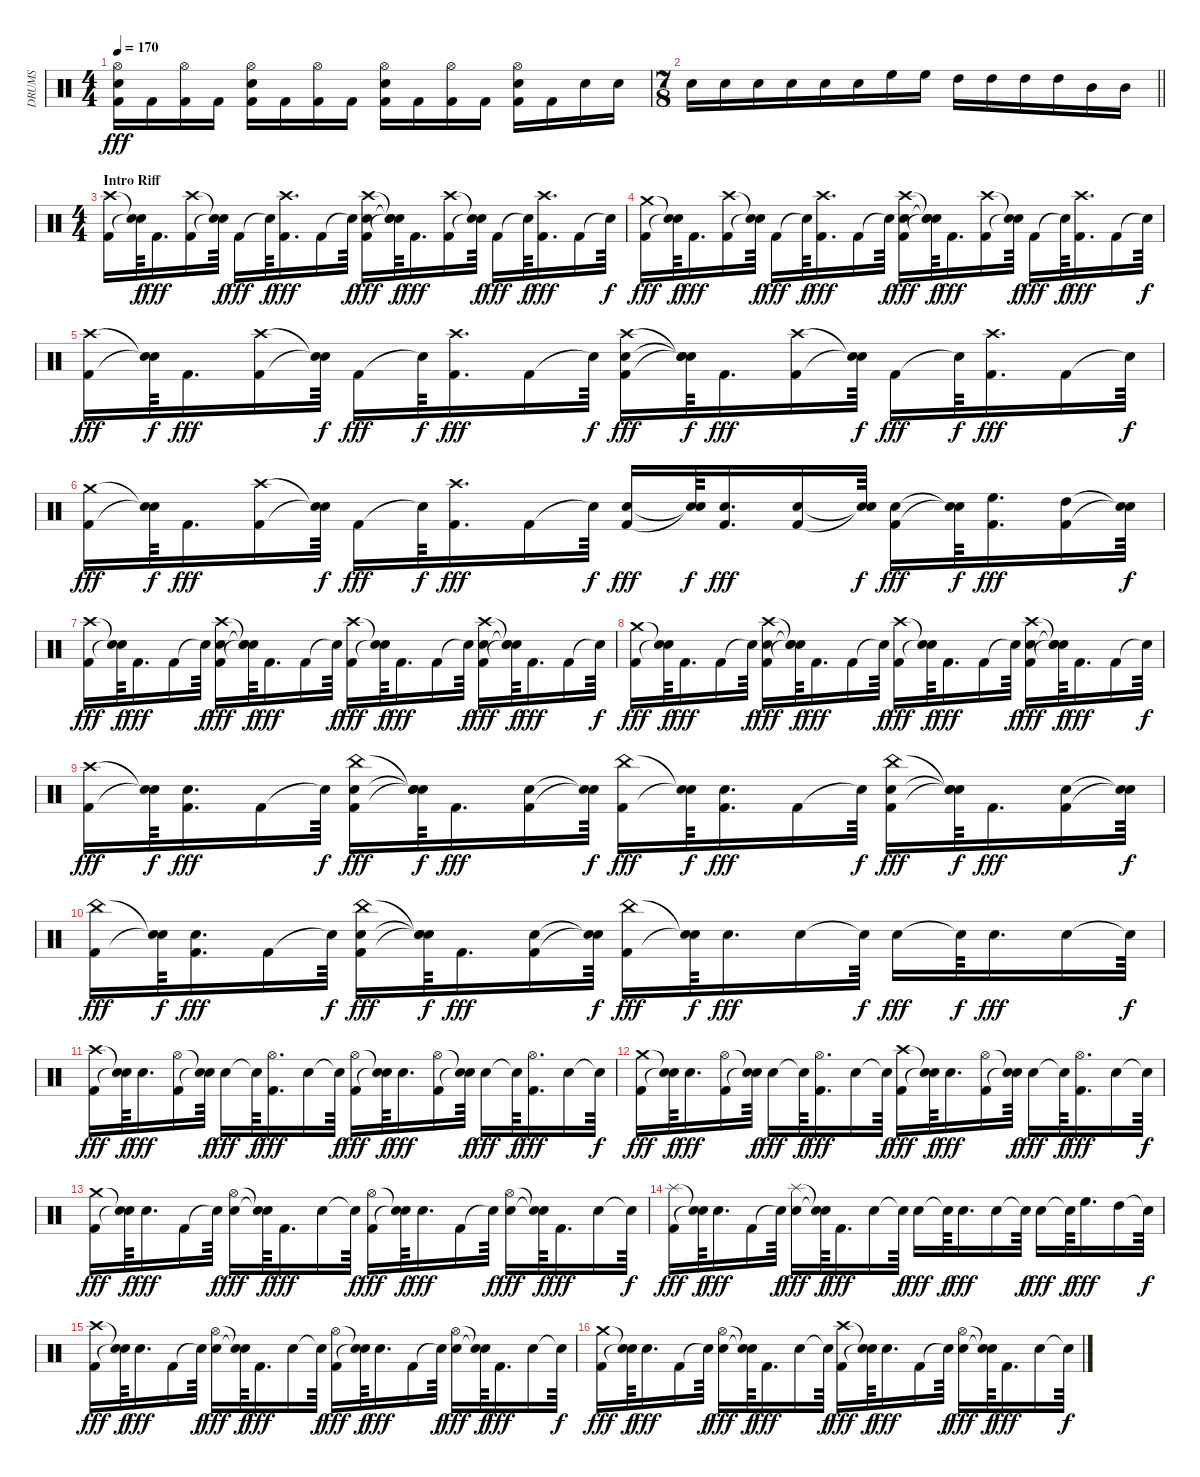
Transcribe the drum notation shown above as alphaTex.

\track ("DRUMS" "DRUMS") {instrument percussion}
\staff {score}
\articulation defaults
\ts (4 4)
\tempo 170
\clef neutral
\ks c
("Hi-Hat (open)" "Kick (hit) 2" "Snare (hit) 2").16{dy fff} "Kick (hit) 2".16 ("Kick (hit) 2" "Hi-Hat (open)").16 "Kick (hit) 2".16 ("Kick (hit) 2" "Snare (hit) 2" "Hi-Hat (open)").16 "Kick (hit) 2".16 ("Kick (hit) 2" "Hi-Hat (open)").16 "Kick (hit) 2".16 ("Hi-Hat (open)" "Kick (hit) 2" "Snare (hit) 2").16 "Kick (hit) 2".16 ("Kick (hit) 2" "Hi-Hat (open)").16 "Kick (hit) 2".16 ("Kick (hit) 2" "Snare (hit) 2" "Hi-Hat (open)").16 "Kick (hit) 2".16 "Snare (hit) 2".16 "Snare (hit) 2".16 |
\ts (7 8)
\barLineRight lightlight "Snare (hit) 2".16 "Snare (hit) 2".16 "Snare (hit) 2".16 "Snare (hit) 2".16 "Snare (hit) 2".16 "Snare (hit) 2".16 "High Floor Tom (hit)".16 "High Floor Tom (hit)".16 "High Tom (hit)".16 "High Tom (hit)".16 "High Tom (hit)".16 "High Tom (hit)".16 "Mid Tom (hit)".16 "Mid Tom (hit)".16
|
\ts (4 4)
\section ("" "Intro Riff")
("Crash high (hit)" "Kick (hit) 2").16 ("Snare (hit)"{t} "Snare (hit)"{t}).64{dy f} "Kick (hit) 2".16{d dy fff} ("Crash high (hit)" "Kick (hit) 2").16 ("Snare (hit)"{t} "Snare (hit)"{t}).64{dy f} "Kick (hit) 2".16{dy fff} "Snare (hit)"{t}.64{dy f} ("Crash high (hit)" "Kick (hit) 2").16{d dy fff} "Kick (hit) 2".16 "Snare (hit)"{t}.64{dy f} ("Crash high (hit)" "Snare (hit) 2" "Kick (hit) 2").16{dy fff} ("Snare (hit)"{t} "Snare (hit)"{t} "Snare (hit)"{t}).64{dy f} "Kick (hit) 2".16{d dy fff} ("Kick (hit) 2" "Crash high (hit)").16 ("Snare (hit)"{t} "Snare (hit)"{t}).64{dy f} "Kick (hit) 2".16{dy fff} "Snare (hit)"{t}.64{dy f} ("Kick (hit) 2" "Crash high (hit)").16{d dy fff} "Kick (hit) 2".16 "Snare (hit)"{t}.64{dy f} |
("Crash medium (hit)" "Kick (hit) 2").16{dy fff} ("Snare (hit)"{t} "Snare (hit)"{t}).64{dy f} "Kick (hit) 2".16{d dy fff} ("Crash high (hit)" "Kick (hit) 2").16 ("Snare (hit)"{t} "Snare (hit)"{t}).64{dy f} "Kick (hit) 2".16{dy fff} "Snare (hit)"{t}.64{dy f} ("Crash high (hit)" "Kick (hit) 2").16{d dy fff} "Kick (hit) 2".16 "Snare (hit)"{t}.64{dy f} ("Crash high (hit)" "Kick (hit) 2" "Snare (hit) 2").16{dy fff} ("Snare (hit)"{t} "Snare (hit)"{t} "Snare (hit)"{t}).64{dy f} "Kick (hit) 2".16{d dy fff} ("Kick (hit) 2" "Crash high (hit)").16 ("Snare (hit)"{t} "Snare (hit)"{t}).64{dy f} "Kick (hit) 2".16{dy fff} "Snare (hit)"{t}.64{dy f} ("Kick (hit) 2" "Crash high (hit)").16{d dy fff} "Kick (hit) 2".16 "Snare (hit)"{t}.64{dy f} |
("Crash high (hit)" "Kick (hit) 2").16{dy fff} ("Snare (hit)"{t} "Snare (hit)"{t}).64{dy f} "Kick (hit) 2".16{d dy fff} ("Kick (hit) 2" "Crash high (hit)").16 ("Snare (hit)"{t} "Snare (hit)"{t}).64{dy f} "Kick (hit) 2".16{dy fff} "Snare (hit)"{t}.64{dy f} ("Kick (hit) 2" "Crash high (hit)").16{d dy fff} "Kick (hit) 2".16 "Snare (hit)"{t}.64{dy f} ("Kick (hit) 2" "Snare (hit) 2" "Crash high (hit)").16{dy fff} ("Snare (hit)"{t} "Snare (hit)"{t} "Snare (hit)"{t}).64{dy f} "Kick (hit) 2".16{d dy fff} ("Crash high (hit)" "Kick (hit) 2").16 ("Snare (hit)"{t} "Snare (hit)"{t}).64{dy f} "Kick (hit) 2".16{dy fff} "Snare (hit)"{t}.64{dy f} ("Crash high (hit)" "Kick (hit) 2").16{d dy fff} "Kick (hit) 2".16 "Snare (hit)"{t}.64{dy f} |
("Kick (hit) 2" "Crash medium (hit)").16{dy fff} ("Snare (hit)"{t} "Snare (hit)"{t}).64{dy f} "Kick (hit) 2".16{d dy fff} ("Kick (hit) 2" "Crash high (hit)").16 ("Snare (hit)"{t} "Snare (hit)"{t}).64{dy f} "Kick (hit) 2".16{dy fff} "Snare (hit)"{t}.64{dy f} ("Kick (hit) 2" "Crash high (hit)").16{d dy fff} "Kick (hit) 2".16 "Snare (hit)"{t}.64{dy f} ("Kick (hit) 2" "Snare (hit) 2").16{dy fff} ("Snare (hit)"{t} "Snare (hit)"{t}).64{dy f} ("Kick (hit) 2" "Snare (hit) 2").16{d dy fff} ("Kick (hit) 2" "Snare (hit) 2").16 ("Snare (hit)"{t} "Snare (hit)"{t}).64{dy f} ("Kick (hit) 2" "Snare (hit) 2").16{dy fff} ("Snare (hit)"{t} "Snare (hit)"{t}).64{dy f} ("High Floor Tom (hit)" "Kick (hit) 2").16{d dy fff} ("Kick (hit) 2" "High Tom (hit)").16 ("Snare (hit)"{t} "Snare (hit)"{t}).64{dy f} |
("Crash high (hit)" "Kick (hit) 2").16{dy fff} ("Snare (hit)"{t} "Snare (hit)"{t}).64{dy f} "Kick (hit) 2".16{d dy fff} "Kick (hit) 2".16 "Snare (hit)"{t}.64{dy f} ("Snare (hit) 2" "Kick (hit) 2" "Crash high (hit)").16{dy fff} ("Snare (hit)"{t} "Snare (hit)"{t} "Snare (hit)"{t}).64{dy f} "Kick (hit) 2".16{d dy fff} "Kick (hit) 2".16 "Snare (hit)"{t}.64{dy f} ("Kick (hit) 2" "Crash high (hit)").16{dy fff} ("Snare (hit)"{t} "Snare (hit)"{t}).64{dy f} "Kick (hit) 2".16{d dy fff} "Kick (hit) 2".16 "Snare (hit)"{t}.64{dy f} ("Crash high (hit)" "Snare (hit) 2" "Kick (hit) 2").16{dy fff} ("Snare (hit)"{t} "Snare (hit)"{t} "Snare (hit)"{t}).64{dy f} "Kick (hit) 2".16{d dy fff} "Kick (hit) 2".16 "Snare (hit)"{t}.64{dy f} |
("Crash medium (hit)" "Kick (hit) 2").16{dy fff} ("Snare (hit)"{t} "Snare (hit)"{t}).64{dy f} "Kick (hit) 2".16{d dy fff} "Kick (hit) 2".16 "Snare (hit)"{t}.64{dy f} ("Snare (hit) 2" "Kick (hit) 2" "Crash high (hit)").16{dy fff} ("Snare (hit)"{t} "Snare (hit)"{t} "Snare (hit)"{t}).64{dy f} "Kick (hit) 2".16{d dy fff} "Kick (hit) 2".16 "Snare (hit)"{t}.64{dy f} ("Kick (hit) 2" "Crash high (hit)").16{dy fff} ("Snare (hit)"{t} "Snare (hit)"{t}).64{dy f} "Kick (hit) 2".16{d dy fff} "Kick (hit) 2".16 "Snare (hit)"{t}.64{dy f} ("Crash high (hit)" "Snare (hit) 2" "Kick (hit) 2").16{dy fff} ("Snare (hit)"{t} "Snare (hit)"{t} "Snare (hit)"{t}).64{dy f} "Kick (hit) 2".16{d dy fff} "Kick (hit) 2".16 "Snare (hit)"{t}.64{dy f} |
("Kick (hit) 2" "Crash high (hit)").16{dy fff} ("Snare (hit)"{t} "Snare (hit)"{t}).64{dy f} ("Kick (hit) 2" "Snare (hit) 2").16{d dy fff} "Kick (hit) 2".16 "Snare (hit)"{t}.64{dy f} ("China (hit)" "Kick (hit) 2" "Snare (hit) 2").16{dy fff} ("Snare (hit)"{t} "Snare (hit)"{t} "Snare (hit)"{t}).64{dy f} "Kick (hit) 2".16{d dy fff} ("Snare (hit) 2" "Kick (hit) 2").16 ("Snare (hit)"{t} "Snare (hit)"{t}).64{dy f} ("Kick (hit) 2" "China (hit)").16{dy fff} ("Snare (hit)"{t} "Snare (hit)"{t}).64{dy f} ("Kick (hit) 2" "Snare (hit) 2").16{d dy fff} "Kick (hit) 2".16 "Snare (hit)"{t}.64{dy f} ("Snare (hit) 2" "China (hit)" "Kick (hit) 2").16{dy fff} ("Snare (hit)"{t} "Snare (hit)"{t} "Snare (hit)"{t}).64{dy f} "Kick (hit) 2".16{d dy fff} ("Snare (hit) 2" "Kick (hit) 2").16 ("Snare (hit)"{t} "Snare (hit)"{t}).64{dy f} |
("China (hit)" "Kick (hit) 2").16{dy fff} ("Snare (hit)"{t} "Snare (hit)"{t}).64{dy f} ("Snare (hit) 2" "Kick (hit) 2").16{d dy fff} "Kick (hit) 2".16 "Snare (hit)"{t}.64{dy f} ("Snare (hit) 2" "China (hit)" "Kick (hit) 2").16{dy fff} ("Snare (hit)"{t} "Snare (hit)"{t} "Snare (hit)"{t}).64{dy f} "Kick (hit) 2".16{d dy fff} ("Kick (hit) 2" "Snare (hit) 2").16 ("Snare (hit)"{t} "Snare (hit)"{t}).64{dy f} ("Kick (hit) 2" "China (hit)").16{dy fff} ("Snare (hit)"{t} "Snare (hit)"{t}).64{dy f} "Snare (hit) 2".16{d dy fff} "Snare (hit) 2".16 "Snare (hit)"{t}.64{dy f} "Snare (hit) 2".16{dy fff} "Snare (hit)"{t}.64{dy f} "Snare (hit) 2".16{d dy fff} "Snare (hit) 2".16 "Snare (hit)"{t}.64{dy f} |
("Kick (hit) 2" "Crash high (hit)").16{dy fff} ("Snare (hit)"{t} "Snare (hit)"{t}).64{dy f} "Snare (hit) 2".16{d dy fff} ("Hi-Hat (open)" "Kick (hit) 2").16 ("Snare (hit)"{t} "Snare (hit)"{t}).64{dy f} "Snare (hit) 2".16{dy fff} "Snare (hit)"{t}.64{dy f} ("Kick (hit) 2" "Hi-Hat (open)").16{d dy fff} "Snare (hit) 2".16 "Snare (hit)"{t}.64{dy f} ("Kick (hit) 2" "Hi-Hat (open)").16{dy fff} ("Snare (hit)"{t} "Snare (hit)"{t}).64{dy f} "Snare (hit) 2".16{d dy fff} ("Hi-Hat (open)" "Kick (hit) 2").16 ("Snare (hit)"{t} "Snare (hit)"{t}).64{dy f} "Snare (hit) 2".16{dy fff} "Snare (hit)"{t}.64{dy f} ("Kick (hit) 2" "Hi-Hat (open)").16{d dy fff} "Snare (hit) 2".16 "Snare (hit)"{t}.64{dy f} |
("Kick (hit) 2" "Crash medium (hit)").16{dy fff} ("Snare (hit)"{t} "Snare (hit)"{t}).64{dy f} "Snare (hit) 2".16{d dy fff} ("Hi-Hat (open)" "Kick (hit) 2").16 ("Snare (hit)"{t} "Snare (hit)"{t}).64{dy f} "Snare (hit) 2".16{dy fff} "Snare (hit)"{t}.64{dy f} ("Kick (hit) 2" "Hi-Hat (open)").16{d dy fff} "Snare (hit) 2".16 "Snare (hit)"{t}.64{dy f} ("Crash high (hit)" "Kick (hit) 2").16{dy fff} ("Snare (hit)"{t} "Snare (hit)"{t}).64{dy f} "Snare (hit) 2".16{d dy fff} ("Kick (hit) 2" "Hi-Hat (open)").16 ("Snare (hit)"{t} "Snare (hit)"{t}).64{dy f} "Snare (hit) 2".16{dy fff} "Snare (hit)"{t}.64{dy f} ("Hi-Hat (open)" "Kick (hit) 2").16{d dy fff} "Snare (hit) 2".16 "Snare (hit)"{t}.64{dy f} |
("Crash medium (hit)" "Kick (hit) 2").16{dy fff} ("Snare (hit)"{t} "Snare (hit)"{t}).64{dy f} "Snare (hit) 2".16{d dy fff} "Kick (hit) 2".16 "Snare (hit)"{t}.64{dy f} ("Hi-Hat (open)" "Snare (hit) 2").16{dy fff} ("Snare (hit)"{t} "Snare (hit)"{t}).64{dy f} "Kick (hit) 2".16{d dy fff} "Snare (hit) 2".16 "Snare (hit)"{t}.64{dy f} ("Kick (hit) 2" "Hi-Hat (open)").16{dy fff} ("Snare (hit)"{t} "Snare (hit)"{t}).64{dy f} "Snare (hit) 2".16{d dy fff} "Kick (hit) 2".16 "Snare (hit)"{t}.64{dy f} ("Hi-Hat (open)" "Snare (hit) 2").16{dy fff} ("Snare (hit)"{t} "Snare (hit)"{t}).64{dy f} "Kick (hit) 2".16{d dy fff} "Snare (hit) 2".16 "Snare (hit)"{t}.64{dy f} |
("Splash (hit)" "Kick (hit) 2").16{dy fff} ("Snare (hit)"{t} "Snare (hit)"{t}).64{dy f} "Snare (hit) 2".16{d dy fff} "Kick (hit) 2".16 "Snare (hit)"{t}.64{dy f} ("Splash (hit)" "Snare (hit) 2").16{dy fff} ("Snare (hit)"{t} "Snare (hit)"{t}).64{dy f} "Kick (hit) 2".16{d dy fff} "Snare (hit) 2".16 "Snare (hit)"{t}.64{dy f} "Snare (hit) 2".16{dy fff} "Snare (hit)"{t}.64{dy f} "Snare (hit) 2".16{d dy fff} "Snare (hit) 2".16 "Snare (hit)"{t}.64{dy f} "Snare (hit) 2".16{dy fff} "Snare (hit)"{t}.64{dy f} "High Floor Tom (hit)".16{d dy fff} "High Tom (hit)".16 "Snare (hit)"{t}.64{dy f} |
("Crash high (hit)" "Kick (hit) 2").16{dy fff} ("Snare (hit)"{t} "Snare (hit)"{t}).64{dy f} "Snare (hit) 2".16{d dy fff} "Kick (hit) 2".16 "Snare (hit)"{t}.64{dy f} ("Hi-Hat (open)" "Snare (hit) 2").16{dy fff} ("Snare (hit)"{t} "Snare (hit)"{t}).64{dy f} "Kick (hit) 2".16{d dy fff} "Snare (hit) 2".16 "Snare (hit)"{t}.64{dy f} ("Kick (hit) 2" "Hi-Hat (open)").16{dy fff} ("Snare (hit)"{t} "Snare (hit)"{t}).64{dy f} "Snare (hit) 2".16{d dy fff} "Kick (hit) 2".16 "Snare (hit)"{t}.64{dy f} ("Hi-Hat (open)" "Snare (hit) 2").16{dy fff} ("Snare (hit)"{t} "Snare (hit)"{t}).64{dy f} "Kick (hit) 2".16{d dy fff} "Snare (hit) 2".16 "Snare (hit)"{t}.64{dy f} |
("Kick (hit) 2" "Crash medium (hit)").16{dy fff} ("Snare (hit)"{t} "Snare (hit)"{t}).64{dy f} "Snare (hit) 2".16{d dy fff} "Kick (hit) 2".16 "Snare (hit)"{t}.64{dy f} ("Hi-Hat (open)" "Snare (hit) 2").16{dy fff} ("Snare (hit)"{t} "Snare (hit)"{t}).64{dy f} "Kick (hit) 2".16{d dy fff} "Snare (hit) 2".16 "Snare (hit)"{t}.64{dy f} ("Crash high (hit)" "Kick (hit) 2").16{dy fff} ("Snare (hit)"{t} "Snare (hit)"{t}).64{dy f} "Snare (hit) 2".16{d dy fff} "Kick (hit) 2".16 "Snare (hit)"{t}.64{dy f} ("Hi-Hat (open)" "Snare (hit) 2").16{dy fff} ("Snare (hit)"{t} "Snare (hit)"{t}).64{dy f} "Kick (hit) 2".16{d dy fff} "Snare (hit) 2".16 "Snare (hit)"{t}.64{dy f}
